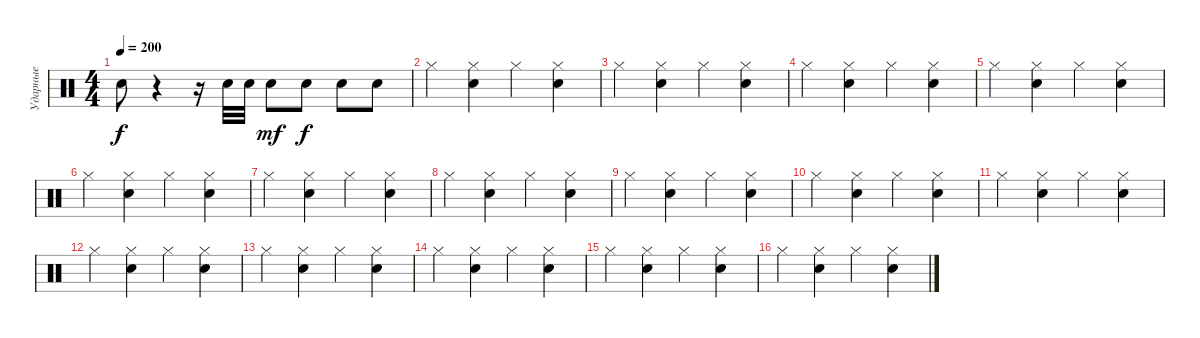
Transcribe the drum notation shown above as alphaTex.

\track ("Ударные" "Ударные") {instrument percussion}
\staff {score}
\articulation defaults
\ts (4 4)
\tempo 200
\clef neutral
\ks c "Electric Snare (hit)".8{dy f}
r.4 r.16 "Electric Snare (hit)".32 "Electric Snare (hit)".32 "Electric Snare (hit)".8{dy mf} "Electric Snare (hit)".8{dy f} "Electric Snare (hit)".8 "Electric Snare (hit)".8 |
"Hi-Hat (closed)".4 ("Snare (hit) 2" "Hi-Hat (closed)").4 "Hi-Hat (closed)".4 ("Snare (hit) 2" "Hi-Hat (closed)").4 |
"Hi-Hat (closed)".4 ("Snare (hit) 2" "Hi-Hat (closed)").4 "Hi-Hat (closed)".4 ("Snare (hit) 2" "Hi-Hat (closed)").4 |
"Hi-Hat (closed)".4 ("Snare (hit) 2" "Hi-Hat (closed)").4 "Hi-Hat (closed)".4 ("Snare (hit) 2" "Hi-Hat (closed)").4 |
"Hi-Hat (closed)".4 ("Snare (hit) 2" "Hi-Hat (closed)").4 "Hi-Hat (closed)".4 ("Snare (hit) 2" "Hi-Hat (closed)").4 |
"Hi-Hat (closed)".4 ("Snare (hit) 2" "Hi-Hat (closed)").4 "Hi-Hat (closed)".4 ("Snare (hit) 2" "Hi-Hat (closed)").4 |
"Hi-Hat (closed)".4 ("Snare (hit) 2" "Hi-Hat (closed)").4 "Hi-Hat (closed)".4 ("Snare (hit) 2" "Hi-Hat (closed)").4 |
"Hi-Hat (closed)".4 ("Snare (hit) 2" "Hi-Hat (closed)").4 "Hi-Hat (closed)".4 ("Snare (hit) 2" "Hi-Hat (closed)").4 |
"Hi-Hat (closed)".4 ("Snare (hit) 2" "Hi-Hat (closed)").4 "Hi-Hat (closed)".4 ("Snare (hit) 2" "Hi-Hat (closed)").4 |
"Hi-Hat (closed)".4 ("Snare (hit) 2" "Hi-Hat (closed)").4 "Hi-Hat (closed)".4 ("Snare (hit) 2" "Hi-Hat (closed)").4 |
"Hi-Hat (closed)".4 ("Snare (hit) 2" "Hi-Hat (closed)").4 "Hi-Hat (closed)".4 ("Snare (hit) 2" "Hi-Hat (closed)").4 |
"Hi-Hat (closed)".4 ("Snare (hit) 2" "Hi-Hat (closed)").4 "Hi-Hat (closed)".4 ("Snare (hit) 2" "Hi-Hat (closed)").4 |
"Hi-Hat (closed)".4 ("Snare (hit) 2" "Hi-Hat (closed)").4 "Hi-Hat (closed)".4 ("Snare (hit) 2" "Hi-Hat (closed)").4 |
"Hi-Hat (closed)".4 ("Snare (hit) 2" "Hi-Hat (closed)").4 "Hi-Hat (closed)".4 ("Snare (hit) 2" "Hi-Hat (closed)").4 |
"Hi-Hat (closed)".4 ("Snare (hit) 2" "Hi-Hat (closed)").4 "Hi-Hat (closed)".4 ("Snare (hit) 2" "Hi-Hat (closed)").4 |
"Hi-Hat (closed)".4 ("Snare (hit) 2" "Hi-Hat (closed)").4 "Hi-Hat (closed)".4 ("Snare (hit) 2" "Hi-Hat (closed)").4
